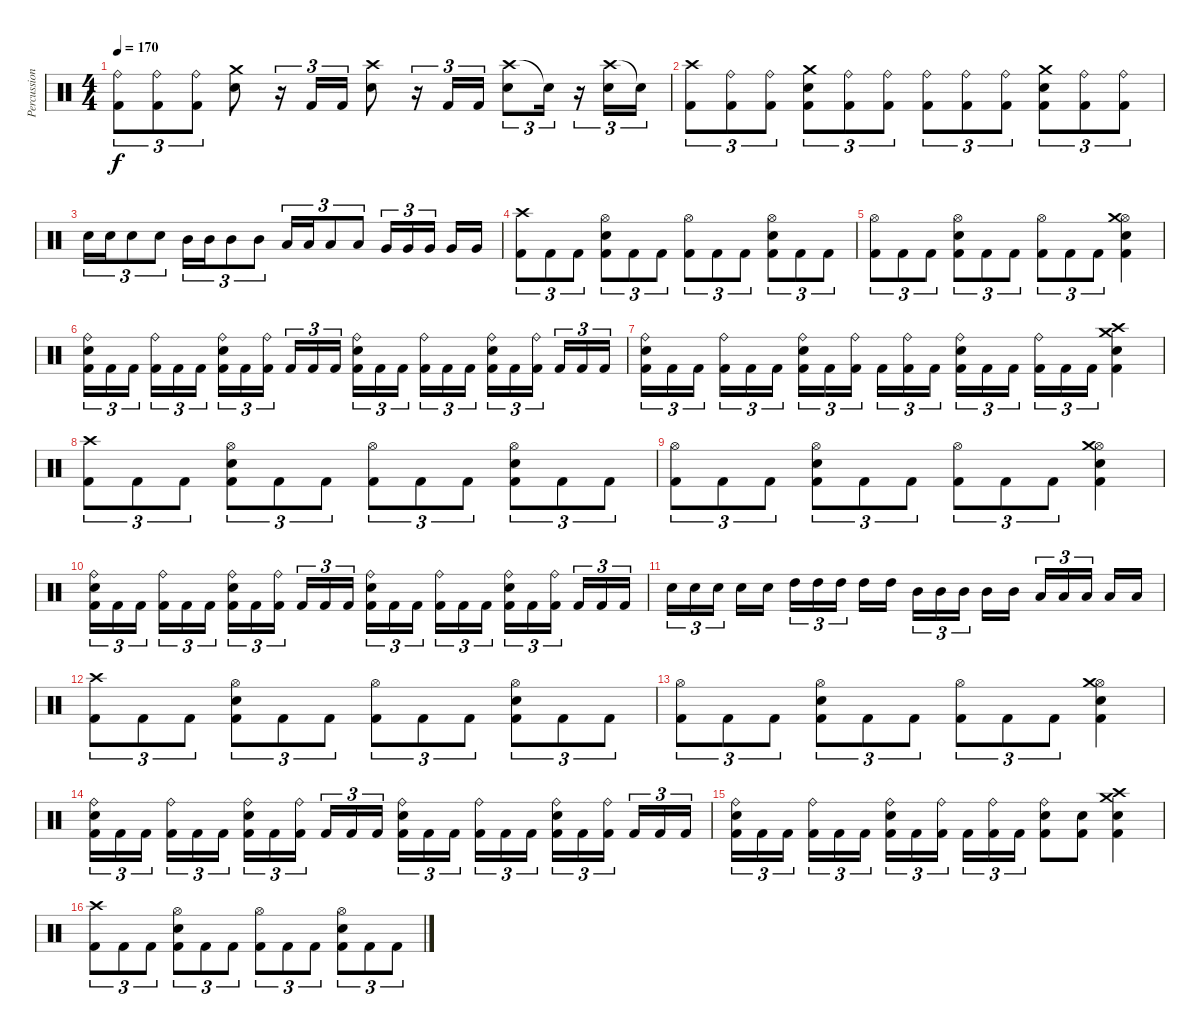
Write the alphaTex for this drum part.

\track ("Percussions" "Percussion") {instrument percussion}
\staff {score}
\articulation defaults
\ts (4 4)
\tempo 170
\clef neutral
\ks c
("Ride (bell)" "Kick (hit) 2").8{tu (3 2) dy f} ("Ride (bell)" "Kick (hit) 2").8{tu (3 2)} ("Ride (bell)" "Kick (hit) 2").8{tu (3 2)} ("Crash medium (hit)" "Electric Snare (hit)").8 r.16{tu (3 2)} "Kick (hit) 2".16{tu (3 2)} "Kick (hit) 2".16{tu (3 2)} ("Crash high (hit)" "Electric Snare (hit)").8 r.16{tu (3 2)} "Kick (hit) 2".16{tu (3 2)} "Kick (hit) 2".16{tu (3 2)} ("Crash high (hit)" "Electric Snare (hit)").8{tu (3 2)} "Electric Snare (hit)"{t}.16{tu (3 2)} r.16{tu (3 2)} ("Crash high (hit)" "Electric Snare (hit)").16{tu (3 2)} "Snare (hit)"{t}.16{tu (3 2)} |
("Crash high (hit)" "Kick (hit) 2").8{tu (3 2)} ("Ride (bell)" "Kick (hit) 2").8{tu (3 2)} ("Ride (bell)" "Kick (hit) 2").8{tu (3 2)} ("Crash medium (hit)" "Electric Snare (hit)" "Kick (hit) 2").8{tu (3 2)} ("Ride (bell)" "Kick (hit) 2").8{tu (3 2)} ("Ride (bell)" "Kick (hit) 2").8{tu (3 2)} ("Ride (bell)" "Kick (hit) 2").8{tu (3 2)} ("Ride (bell)" "Kick (hit) 2").8{tu (3 2)} ("Ride (bell)" "Kick (hit) 2").8{tu (3 2)} ("Crash medium (hit)" "Electric Snare (hit)" "Kick (hit) 2").8{tu (3 2)} ("Ride (bell)" "Kick (hit) 2").8{tu (3 2)} ("Ride (bell)" "Kick (hit) 2").8{tu (3 2)} |
"Electric Snare (hit)".16{tu (3 2)} "Electric Snare (hit)".16{tu (3 2)} "Electric Snare (hit)".8{tu (3 2)} "Electric Snare (hit)".8{tu (3 2)} "Mid Tom (hit)".16{tu (3 2)} "Mid Tom (hit)".16{tu (3 2)} "Mid Tom (hit)".8{tu (3 2)} "Mid Tom (hit)".8{tu (3 2)} "Low Tom (hit)".16{tu (3 2)} "Low Tom (hit)".16{tu (3 2)} "Low Tom (hit)".8{tu (3 2)} "Low Tom (hit)".8{tu (3 2)} "Very Low Tom (hit)".16{tu (3 2)} "Very Low Tom (hit)".16{tu (3 2)} "Very Low Tom (hit)".16{tu (3 2)} "Very Low Tom (hit)".16 "Very Low Tom (hit)".16 |
("Crash high (hit)" "Kick (hit) 2").8{tu (3 2)} "Kick (hit) 2".8{tu (3 2)} "Kick (hit) 2".8{tu (3 2)} ("Hi-Hat (open)" "Electric Snare (hit)" "Kick (hit) 2").8{tu (3 2)} "Kick (hit) 2".8{tu (3 2)} "Kick (hit) 2".8{tu (3 2)} ("Hi-Hat (open)" "Kick (hit) 2").8{tu (3 2)} "Kick (hit) 2".8{tu (3 2)} "Kick (hit) 2".8{tu (3 2)} ("Hi-Hat (open)" "Electric Snare (hit)" "Kick (hit) 2").8{tu (3 2)} "Kick (hit) 2".8{tu (3 2)} "Kick (hit) 2".8{tu (3 2)} |
("Hi-Hat (open)" "Kick (hit) 2").8{tu (3 2)} "Kick (hit) 2".8{tu (3 2)} "Kick (hit) 2".8{tu (3 2)} ("Hi-Hat (open)" "Electric Snare (hit)" "Kick (hit) 2").8{tu (3 2)} "Kick (hit) 2".8{tu (3 2)} "Kick (hit) 2".8{tu (3 2)} ("Hi-Hat (open)" "Kick (hit) 2").8{tu (3 2)} "Kick (hit) 2".8{tu (3 2)} "Kick (hit) 2".8{tu (3 2)} ("Hi-Hat (open)" "Crash medium (hit)" "Electric Snare (hit)" "Kick (hit) 2").4 |
("Ride (bell)" "Electric Snare (hit)" "Kick (hit) 2").16{tu (3 2)} "Kick (hit) 2".16{tu (3 2)} "Kick (hit) 2".16{tu (3 2)} ("Ride (bell)" "Kick (hit) 2").16{tu (3 2)} "Kick (hit) 2".16{tu (3 2)} "Kick (hit) 2".16{tu (3 2)} ("Ride (bell)" "Electric Snare (hit)" "Kick (hit) 2").16{tu (3 2)} "Kick (hit) 2".16{tu (3 2)} ("Ride (bell)" "Kick (hit) 2").16{tu (3 2)} "Kick (hit) 2".16{tu (3 2)} "Kick (hit) 2".16{tu (3 2)} "Kick (hit) 2".16{tu (3 2)} ("Ride (bell)" "Electric Snare (hit)" "Kick (hit) 2").16{tu (3 2)} "Kick (hit) 2".16{tu (3 2)} "Kick (hit) 2".16{tu (3 2)} ("Ride (bell)" "Kick (hit) 2").16{tu (3 2)} "Kick (hit) 2".16{tu (3 2)} "Kick (hit) 2".16{tu (3 2)} ("Ride (bell)" "Electric Snare (hit)" "Kick (hit) 2").16{tu (3 2)} "Kick (hit) 2".16{tu (3 2)} ("Ride (bell)" "Kick (hit) 2").16{tu (3 2)} "Kick (hit) 2".16{tu (3 2)} "Kick (hit) 2".16{tu (3 2)} "Kick (hit) 2".16{tu (3 2)} |
("Ride (bell)" "Electric Snare (hit)" "Kick (hit) 2").16{tu (3 2)} "Kick (hit) 2".16{tu (3 2)} "Kick (hit) 2".16{tu (3 2)} ("Ride (bell)" "Kick (hit) 2").16{tu (3 2)} "Kick (hit) 2".16{tu (3 2)} "Kick (hit) 2".16{tu (3 2)} ("Ride (bell)" "Electric Snare (hit)" "Kick (hit) 2").16{tu (3 2)} "Kick (hit) 2".16{tu (3 2)} ("Ride (bell)" "Kick (hit) 2").16{tu (3 2)} "Kick (hit) 2".16{tu (3 2)} ("Ride (bell)" "Kick (hit) 2").16{tu (3 2)} "Kick (hit) 2".16{tu (3 2)} ("Ride (bell)" "Electric Snare (hit)" "Kick (hit) 2").16{tu (3 2)} "Kick (hit) 2".16{tu (3 2)} "Kick (hit) 2".16{tu (3 2)} ("Ride (bell)" "Kick (hit) 2").16{tu (3 2)} "Kick (hit) 2".16{tu (3 2)} "Kick (hit) 2".16{tu (3 2)} ("Crash high (hit)" "Crash medium (hit)" "Electric Snare (hit)" "Kick (hit) 2").4 |
("Crash high (hit)" "Kick (hit) 2").8{tu (3 2)} "Kick (hit) 2".8{tu (3 2)} "Kick (hit) 2".8{tu (3 2)} ("Hi-Hat (open)" "Electric Snare (hit)" "Kick (hit) 2").8{tu (3 2)} "Kick (hit) 2".8{tu (3 2)} "Kick (hit) 2".8{tu (3 2)} ("Hi-Hat (open)" "Kick (hit) 2").8{tu (3 2)} "Kick (hit) 2".8{tu (3 2)} "Kick (hit) 2".8{tu (3 2)} ("Hi-Hat (open)" "Electric Snare (hit)" "Kick (hit) 2").8{tu (3 2)} "Kick (hit) 2".8{tu (3 2)} "Kick (hit) 2".8{tu (3 2)} |
("Hi-Hat (open)" "Kick (hit) 2").8{tu (3 2)} "Kick (hit) 2".8{tu (3 2)} "Kick (hit) 2".8{tu (3 2)} ("Hi-Hat (open)" "Electric Snare (hit)" "Kick (hit) 2").8{tu (3 2)} "Kick (hit) 2".8{tu (3 2)} "Kick (hit) 2".8{tu (3 2)} ("Hi-Hat (open)" "Kick (hit) 2").8{tu (3 2)} "Kick (hit) 2".8{tu (3 2)} "Kick (hit) 2".8{tu (3 2)} ("Hi-Hat (open)" "Crash medium (hit)" "Electric Snare (hit)" "Kick (hit) 2").4 |
("Ride (bell)" "Electric Snare (hit)" "Kick (hit) 2").16{tu (3 2)} "Kick (hit) 2".16{tu (3 2)} "Kick (hit) 2".16{tu (3 2)} ("Ride (bell)" "Kick (hit) 2").16{tu (3 2)} "Kick (hit) 2".16{tu (3 2)} "Kick (hit) 2".16{tu (3 2)} ("Ride (bell)" "Electric Snare (hit)" "Kick (hit) 2").16{tu (3 2)} "Kick (hit) 2".16{tu (3 2)} ("Ride (bell)" "Kick (hit) 2").16{tu (3 2)} "Kick (hit) 2".16{tu (3 2)} "Kick (hit) 2".16{tu (3 2)} "Kick (hit) 2".16{tu (3 2)} ("Ride (bell)" "Electric Snare (hit)" "Kick (hit) 2").16{tu (3 2)} "Kick (hit) 2".16{tu (3 2)} "Kick (hit) 2".16{tu (3 2)} ("Ride (bell)" "Kick (hit) 2").16{tu (3 2)} "Kick (hit) 2".16{tu (3 2)} "Kick (hit) 2".16{tu (3 2)} ("Ride (bell)" "Electric Snare (hit)" "Kick (hit) 2").16{tu (3 2)} "Kick (hit) 2".16{tu (3 2)} ("Ride (bell)" "Kick (hit) 2").16{tu (3 2)} "Kick (hit) 2".16{tu (3 2)} "Kick (hit) 2".16{tu (3 2)} "Kick (hit) 2".16{tu (3 2)} |
"Electric Snare (hit)".16{tu (3 2)} "Electric Snare (hit)".16{tu (3 2)} "Electric Snare (hit)".16{tu (3 2)} "Electric Snare (hit)".16 "Electric Snare (hit)".16 "High Tom (hit)".16{tu (3 2)} "High Tom (hit)".16{tu (3 2)} "High Tom (hit)".16{tu (3 2)} "High Tom (hit)".16 "High Tom (hit)".16 "Mid Tom (hit)".16{tu (3 2)} "Mid Tom (hit)".16{tu (3 2)} "Mid Tom (hit)".16{tu (3 2)} "Mid Tom (hit)".16 "Mid Tom (hit)".16 "Low Tom (hit)".16{tu (3 2)} "Low Tom (hit)".16{tu (3 2)} "Low Tom (hit)".16{tu (3 2)} "Low Tom (hit)".16 "Low Tom (hit)".16 |
("Crash high (hit)" "Kick (hit) 2").8{tu (3 2)} "Kick (hit) 2".8{tu (3 2)} "Kick (hit) 2".8{tu (3 2)} ("Hi-Hat (open)" "Electric Snare (hit)" "Kick (hit) 2").8{tu (3 2)} "Kick (hit) 2".8{tu (3 2)} "Kick (hit) 2".8{tu (3 2)} ("Hi-Hat (open)" "Kick (hit) 2").8{tu (3 2)} "Kick (hit) 2".8{tu (3 2)} "Kick (hit) 2".8{tu (3 2)} ("Hi-Hat (open)" "Electric Snare (hit)" "Kick (hit) 2").8{tu (3 2)} "Kick (hit) 2".8{tu (3 2)} "Kick (hit) 2".8{tu (3 2)} |
("Hi-Hat (open)" "Kick (hit) 2").8{tu (3 2)} "Kick (hit) 2".8{tu (3 2)} "Kick (hit) 2".8{tu (3 2)} ("Hi-Hat (open)" "Electric Snare (hit)" "Kick (hit) 2").8{tu (3 2)} "Kick (hit) 2".8{tu (3 2)} "Kick (hit) 2".8{tu (3 2)} ("Hi-Hat (open)" "Kick (hit) 2").8{tu (3 2)} "Kick (hit) 2".8{tu (3 2)} "Kick (hit) 2".8{tu (3 2)} ("Hi-Hat (open)" "Crash medium (hit)" "Electric Snare (hit)" "Kick (hit) 2").4 |
("Ride (bell)" "Electric Snare (hit)" "Kick (hit) 2").16{tu (3 2)} "Kick (hit) 2".16{tu (3 2)} "Kick (hit) 2".16{tu (3 2)} ("Ride (bell)" "Kick (hit) 2").16{tu (3 2)} "Kick (hit) 2".16{tu (3 2)} "Kick (hit) 2".16{tu (3 2)} ("Ride (bell)" "Electric Snare (hit)" "Kick (hit) 2").16{tu (3 2)} "Kick (hit) 2".16{tu (3 2)} ("Ride (bell)" "Kick (hit) 2").16{tu (3 2)} "Kick (hit) 2".16{tu (3 2)} "Kick (hit) 2".16{tu (3 2)} "Kick (hit) 2".16{tu (3 2)} ("Ride (bell)" "Electric Snare (hit)" "Kick (hit) 2").16{tu (3 2)} "Kick (hit) 2".16{tu (3 2)} "Kick (hit) 2".16{tu (3 2)} ("Ride (bell)" "Kick (hit) 2").16{tu (3 2)} "Kick (hit) 2".16{tu (3 2)} "Kick (hit) 2".16{tu (3 2)} ("Ride (bell)" "Electric Snare (hit)" "Kick (hit) 2").16{tu (3 2)} "Kick (hit) 2".16{tu (3 2)} ("Ride (bell)" "Kick (hit) 2").16{tu (3 2)} "Kick (hit) 2".16{tu (3 2)} "Kick (hit) 2".16{tu (3 2)} "Kick (hit) 2".16{tu (3 2)} |
("Ride (bell)" "Electric Snare (hit)" "Kick (hit) 2").16{tu (3 2)} "Kick (hit) 2".16{tu (3 2)} "Kick (hit) 2".16{tu (3 2)} ("Ride (bell)" "Kick (hit) 2").16{tu (3 2)} "Kick (hit) 2".16{tu (3 2)} "Kick (hit) 2".16{tu (3 2)} ("Ride (bell)" "Electric Snare (hit)" "Kick (hit) 2").16{tu (3 2)} "Kick (hit) 2".16{tu (3 2)} ("Ride (bell)" "Kick (hit) 2").16{tu (3 2)} "Kick (hit) 2".16{tu (3 2)} ("Ride (bell)" "Kick (hit) 2").16{tu (3 2)} "Kick (hit) 2".16{tu (3 2)} ("Ride (bell)" "Electric Snare (hit)" "Kick (hit) 2").8 ("Electric Snare (hit)" "Kick (hit) 2").8 ("Crash high (hit)" "Crash medium (hit)" "Electric Snare (hit)" "Kick (hit) 2").4 |
("Crash high (hit)" "Kick (hit) 2").8{tu (3 2)} "Kick (hit) 2".8{tu (3 2)} "Kick (hit) 2".8{tu (3 2)} ("Hi-Hat (open)" "Electric Snare (hit)" "Kick (hit) 2").8{tu (3 2)} "Kick (hit) 2".8{tu (3 2)} "Kick (hit) 2".8{tu (3 2)} ("Hi-Hat (open)" "Kick (hit) 2").8{tu (3 2)} "Kick (hit) 2".8{tu (3 2)} "Kick (hit) 2".8{tu (3 2)} ("Hi-Hat (open)" "Electric Snare (hit)" "Kick (hit) 2").8{tu (3 2)} "Kick (hit) 2".8{tu (3 2)} "Kick (hit) 2".8{tu (3 2)}
